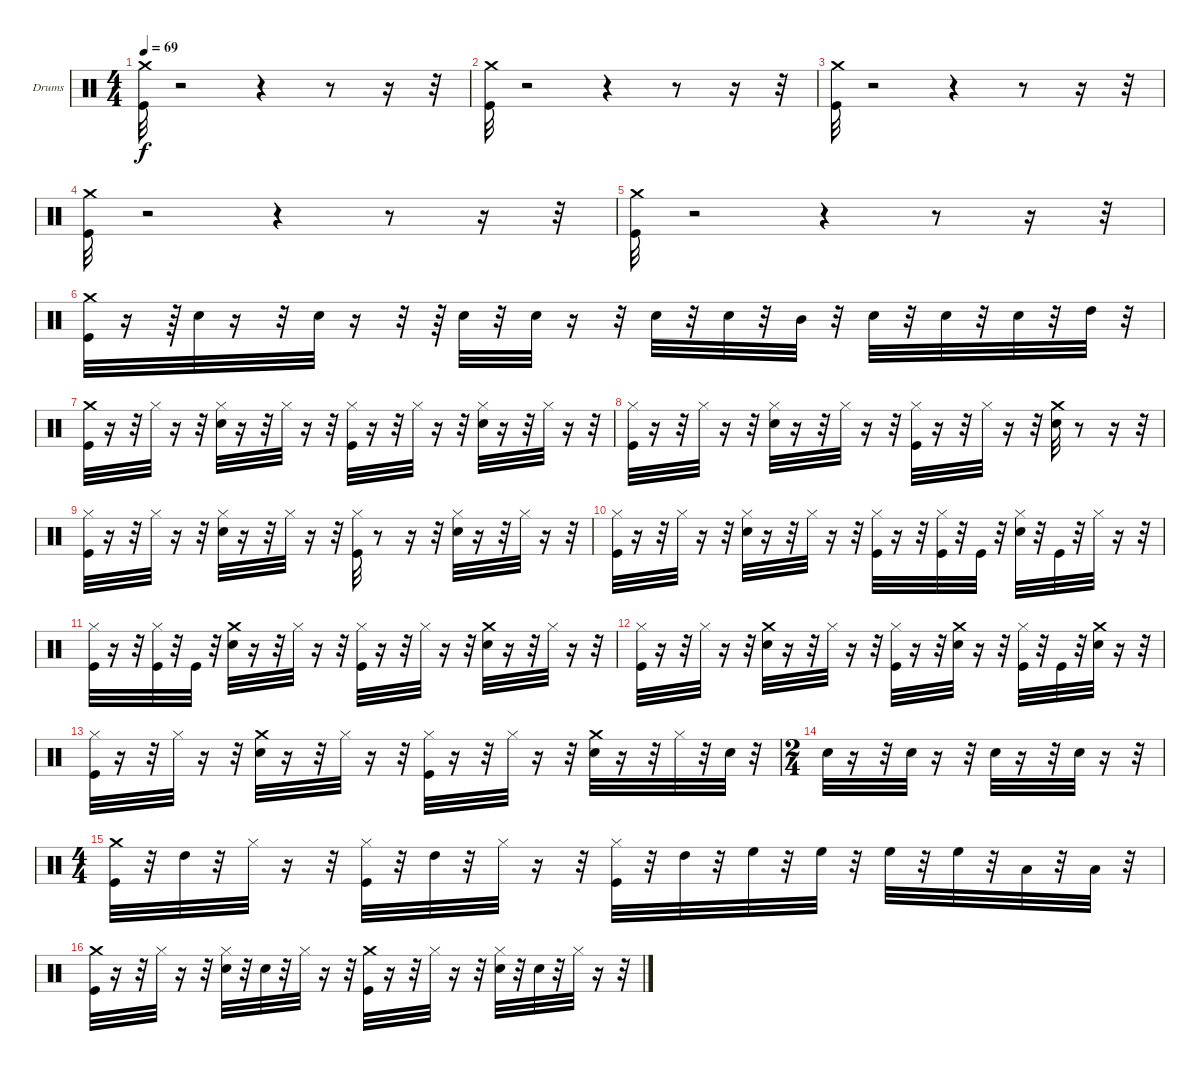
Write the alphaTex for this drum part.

\defaultSystemsLayout 4
\bracketExtendMode groupsimilarinstruments
\firstSystemTrackNameOrientation horizontal
\otherSystemsTrackNameOrientation horizontal
\track ("Drumkit" "Drums") {instrument percussion}
\staff {score}
\articulation defaults
\ts (4 4)
\tempo 69
\clef neutral
\scale
0.474178
\ks c
("Kick (hit)" "Crash medium (hit)").32{dy f} r.2 r.4 r.8 r.16 r.32 |
\scale
0.262911 ("Kick (hit)" "Crash medium (hit)").32 r.2 r.4 r.8 r.16 r.32 |
\scale
0.262911 ("Kick (hit)" "Crash medium (hit)").32 r.2 r.4 r.8 r.16 r.32 |
\scale
0.333333 ("Kick (hit)" "Crash medium (hit)").32 r.2 r.4 r.8 r.16 r.32 |
\scale
0.333333 ("Kick (hit)" "Crash medium (hit)").32 r.2 r.4 r.8 r.16 r.32 |
\scale
0.333333 ("Kick (hit)" "Crash medium (hit)").32 r.16 r.64 "Snare (hit) 2".32 r.16 r.32 "Snare (hit) 2".32 r.16 r.32 r.64 "Snare (hit) 2".32 r.32 "Snare (hit) 2".32 r.16 r.32 "Snare (hit) 2".32 r.32 "Snare (hit) 2".32 r.32 "Mid Tom (hit)".32 r.32 "Snare (hit) 2".32 r.32 "Snare (hit) 2".32 r.32 "Snare (hit) 2".32 r.32 "High Tom (hit)".32 r.32 |
\scale
0.333333 ("Kick (hit)" "Crash medium (hit)").32 r.16 r.32 "Hi-Hat (closed)".32 r.16 r.32 ("Snare (hit) 2" "Hi-Hat (closed)").32 r.16 r.32 "Hi-Hat (closed)".32 r.16 r.32 ("Hi-Hat (closed)" "Kick (hit)").32 r.16 r.32 "Hi-Hat (closed)".32 r.16 r.32 ("Snare (hit) 2" "Hi-Hat (closed)").32 r.16 r.32 "Hi-Hat (closed)".32 r.16 r.32 |
\scale
0.333333 ("Kick (hit)" "Hi-Hat (closed)").32 r.16 r.32 "Hi-Hat (closed)".32 r.16 r.32 ("Snare (hit) 2" "Hi-Hat (closed)").32 r.16 r.32 "Hi-Hat (closed)".32 r.16 r.32 ("Hi-Hat (closed)" "Kick (hit)").32 r.16 r.32 "Hi-Hat (closed)".32 r.16 r.32 ("Crash medium (hit)" "Snare (hit) 2").32 r.8 r.16 r.32 |
\scale
0.333333 ("Kick (hit)" "Hi-Hat (closed)").32 r.16 r.32 "Hi-Hat (closed)".32 r.16 r.32 ("Snare (hit) 2" "Hi-Hat (closed)").32 r.16 r.32 "Hi-Hat (closed)".32 r.16 r.32 ("Kick (hit)" "Hi-Hat (closed)").32 r.8 r.16 r.32 ("Snare (hit) 2" "Hi-Hat (closed)").32 r.16 r.32 "Hi-Hat (closed)".32 r.16 r.32 |
\scale
0.333333 ("Hi-Hat (closed)" "Kick (hit)").32 r.16 r.32 "Hi-Hat (closed)".32 r.16 r.32 ("Snare (hit) 2" "Hi-Hat (closed)").32 r.16 r.32 "Hi-Hat (closed)".32 r.16 r.32 ("Hi-Hat (closed)" "Kick (hit)").32 r.16 r.32 ("Hi-Hat (closed)" "Kick (hit)").32 r.32 "Kick (hit)".32 r.32 ("Snare (hit) 2" "Hi-Hat (closed)").32 r.32 "Kick (hit)".32 r.32 "Hi-Hat (closed)".32 r.16 r.32 |
\scale
0.333333 ("Kick (hit)" "Hi-Hat (closed)").32 r.16 r.32 ("Kick (hit)" "Hi-Hat (closed)").32 r.32 "Kick (hit)".32 r.32 ("Crash medium (hit)" "Snare (hit) 2").32 r.16 r.32 "Hi-Hat (closed)".32 r.16 r.32 ("Hi-Hat (closed)" "Kick (hit)").32 r.16 r.32 "Hi-Hat (closed)".32 r.16 r.32 ("Crash medium (hit)" "Snare (hit) 2").32 r.16 r.32 "Hi-Hat (closed)".32 r.16 r.32 |
\scale
0.333333 ("Kick (hit)" "Hi-Hat (closed)").32 r.16 r.32 "Hi-Hat (closed)".32 r.16 r.32 ("Crash medium (hit)" "Snare (hit) 2").32 r.16 r.32 "Hi-Hat (closed)".32 r.16 r.32 ("Hi-Hat (closed)" "Kick (hit)").32 r.16 r.32 ("Crash medium (hit)" "Snare (hit) 2").32 r.16 r.32 ("Hi-Hat (closed)" "Kick (hit)").32 r.32 "Kick (hit)".32 r.32 ("Crash medium (hit)" "Snare (hit) 2").32 r.16 r.32 |
\scale
0.217054 ("Kick (hit)" "Hi-Hat (closed)").32 r.16 r.32 "Hi-Hat (closed)".32 r.16 r.32 ("Crash medium (hit)" "Snare (hit) 2").32 r.16 r.32 "Hi-Hat (closed)".32 r.16 r.32 ("Hi-Hat (closed)" "Kick (hit)").32 r.16 r.32 "Hi-Hat (closed)".32 r.16 r.32 ("Crash medium (hit)" "Snare (hit) 2").32 r.16 r.32 "Hi-Hat (closed)".32 r.32 "Snare (hit) 2".32 r.32 |
\ts (2 4)
\scale
0.391473 "Snare (hit) 2".32 r.16 r.32 "Snare (hit) 2".32 r.16 r.32 "Snare (hit) 2".32 r.16 r.32 "Snare (hit) 2".32 r.16 r.32 |
\ts (4 4)
\scale
0.391473 ("Crash medium (hit)" "Kick (hit)").32 r.32 "High Tom (hit)".32 r.32 "Hi-Hat (closed)".32 r.16 r.32 ("Hi-Hat (closed)" "Kick (hit)").32 r.32 "High Tom (hit)".32 r.32 "Hi-Hat (closed)".32 r.16 r.32 ("Hi-Hat (closed)" "Kick (hit)").32 r.32 "High Tom (hit)".32 r.32 "High Floor Tom (hit)".32 r.32 "High Floor Tom (hit)".32 r.32 "High Floor Tom (hit)".32 r.32 "High Floor Tom (hit)".32 r.32 "Low Tom (hit)".32 r.32 "Low Tom (hit)".32 r.32 |
\scale
0.333333 ("Kick (hit)" "Crash medium (hit)").32 r.16 r.32 "Hi-Hat (closed)".32 r.16 r.32 ("Snare (hit) 2" "Hi-Hat (closed)").32 r.32 "Snare (hit) 2".32 r.32 "Hi-Hat (closed)".32 r.16 r.32 ("Crash medium (hit)" "Kick (hit)").32 r.16 r.32 "Hi-Hat (closed)".32 r.16 r.32 ("Snare (hit) 2" "Hi-Hat (closed)").32 r.32 "Snare (hit) 2".32 r.32 "Hi-Hat (closed)".32 r.16 r.32
